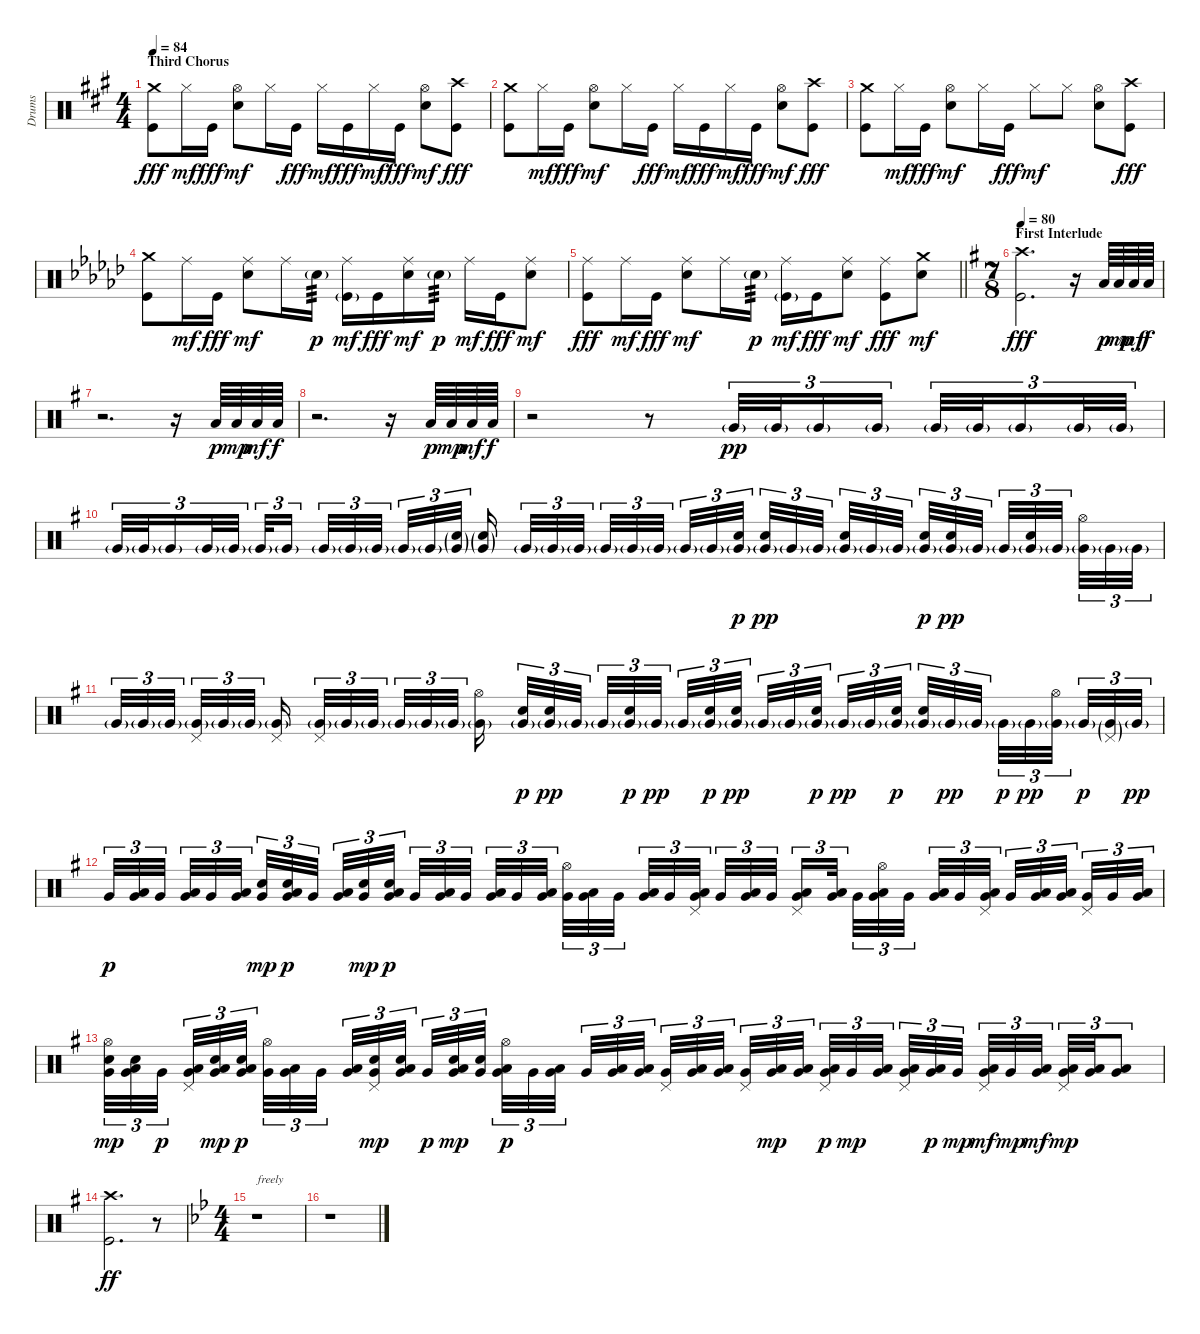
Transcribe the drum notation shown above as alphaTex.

\track ("Drums" "Drums") {instrument percussion}
\staff {score}
\articulation defaults
\ts (4 4)
\section ("" "Third Chorus")
\tempo 84
\clef neutral
\ks a
("Crash medium (hit)" "Kick (hit)").8{dy fff} "Hi-Hat (closed)".16{dy mf} "Kick (hit)".16{dy fff} ("Hi-Hat (open)" "Electric Snare (hit)").8{dy mf} "Hi-Hat (closed)".16 "Kick (hit)".16{dy fff} "Hi-Hat (closed)".16{dy mf} "Kick (hit)".16{dy fff} "Hi-Hat (closed)".16{dy mf} "Kick (hit)".16{dy fff} ("Hi-Hat (open)" "Electric Snare (hit)").8{dy mf} ("Crash high (hit)" "Kick (hit)").8{dy fff} |
("Crash medium (hit)" "Kick (hit)").8 "Hi-Hat (closed)".16{dy mf} "Kick (hit)".16{dy fff} ("Hi-Hat (open)" "Electric Snare (hit)").8{dy mf} "Hi-Hat (closed)".16 "Kick (hit)".16{dy fff} "Hi-Hat (closed)".16{dy mf} "Kick (hit)".16{dy fff} "Hi-Hat (closed)".16{dy mf} "Kick (hit)".16{dy fff} ("Hi-Hat (open)" "Electric Snare (hit)").8{dy mf} ("Crash high (hit)" "Kick (hit)").8{dy fff} |
("Crash medium (hit)" "Kick (hit)").8 "Hi-Hat (closed)".16{dy mf} "Kick (hit)".16{dy fff} ("Hi-Hat (open)" "Electric Snare (hit)").8{dy mf} "Hi-Hat (closed)".16 "Kick (hit)".16{dy fff} "Hi-Hat (closed)".8{dy mf} "Hi-Hat (closed)".8 ("Hi-Hat (open)" "Electric Snare (hit)").8 ("Crash high (hit)" "Kick (hit)").8{dy fff} |
\ks gb
("Crash medium (hit)" "Kick (hit)").8 "Ride (middle)".16{dy mf} "Kick (hit)".16{dy fff} ("Ride (middle)" "Electric Snare (hit)").8{dy mf} "Ride (middle)".16 "Electric Snare (hit)"{g}.16{tp 3 dy p} ("Ride (middle)" "Kick (hit)"{g}).16{dy mf} "Kick (hit)".16{dy fff} ("Ride (middle)" "Electric Snare (hit)").16{dy mf} "Electric Snare (hit)"{g}.16{tp 3 dy p} "Ride (middle)".16{dy mf} "Kick (hit)".16{dy fff} ("Ride (middle)" "Electric Snare (hit)").8{dy mf} |
\barLineRight lightlight
("Ride (middle)" "Kick (hit)").8{dy fff} "Ride (middle)".16{dy mf} "Kick (hit)".16{dy fff} ("Ride (middle)" "Electric Snare (hit)").8{dy mf} "Ride (middle)".16 "Electric Snare (hit)"{g}.16{tp 3 dy p} ("Ride (middle)" "Kick (hit)"{g}).16{dy mf} "Kick (hit)".16{dy fff} ("Ride (middle)" "Electric Snare (hit)").8{dy mf} ("Ride (middle)" "Kick (hit)").8{dy fff} ("Crash medium (hit)" "Electric Snare (hit)").8{dy mf} |
\ts (7 8)
\section ("" "First Interlude")
\tempo 80
\ks g
("Crash high (hit)" "Kick (hit)").2{d dy fff volume 10} r.16 "Low Floor Tom (hit)".64{dy p} "Low Floor Tom (hit)".64{dy mp} "Low Floor Tom (hit)".64{dy mf} "Low Floor Tom (hit)".64{dy f} |
r.2{d} r.16 "Low Floor Tom (hit)".64{dy p} "Low Floor Tom (hit)".64{dy mp} "Low Floor Tom (hit)".64{dy mf} "Low Floor Tom (hit)".64{dy f} |
r.2{d} r.16 "Low Floor Tom (hit)".64{dy p} "Low Floor Tom (hit)".64{dy mp} "Low Floor Tom (hit)".64{dy mf} "Low Floor Tom (hit)".64{dy f} |
r.2 r.8 "Very Low Tom (hit)"{g}.32{tu (3 2) dy pp} "Very Low Tom (hit)"{g}.32{tu (3 2)} "Very Low Tom (hit)"{g}.16{tu (3 2)} "Very Low Tom (hit)"{g}.16{tu (3 2)} "Very Low Tom (hit)"{g}.32{tu (3 2)} "Very Low Tom (hit)"{g}.32{tu (3 2)} "Very Low Tom (hit)"{g}.16{tu (3 2)} "Very Low Tom (hit)"{g}.32{tu (3 2)} "Very Low Tom (hit)"{g}.32{tu (3 2)} |
"Very Low Tom (hit)"{g}.32{tu (3 2)} "Very Low Tom (hit)"{g}.32{tu (3 2)} "Very Low Tom (hit)"{g}.16{tu (3 2)} "Very Low Tom (hit)"{g}.32{tu (3 2)} "Very Low Tom (hit)"{g}.32{tu (3 2)} "Very Low Tom (hit)"{g}.32{tu (3 2)} "Very Low Tom (hit)"{g}.16{tu (3 2) beam splitsecondary} "Very Low Tom (hit)"{g}.32{tu (3 2)} "Very Low Tom (hit)"{g}.32{tu (3 2)} "Very Low Tom (hit)"{g}.32{tu (3 2)} "Very Low Tom (hit)"{g}.32{tu (3 2)} "Very Low Tom (hit)"{g}.32{tu (3 2)} ("Very Low Tom (hit)"{g} "Electric Snare (hit)"{g}).32{tu (3 2) beam splitsecondary} ("Very Low Tom (hit)"{g} "Electric Snare (hit)"{g}).16 "Very Low Tom (hit)"{g}.32{tu (3 2)} "Very Low Tom (hit)"{g}.32{tu (3 2)} "Very Low Tom (hit)"{g}.32{tu (3 2) beam splitsecondary} "Very Low Tom (hit)"{g}.32{tu (3 2)} "Very Low Tom (hit)"{g}.32{tu (3 2)} "Very Low Tom (hit)"{g}.32{tu (3 2)} "Very Low Tom (hit)"{g}.32{tu (3 2)} "Very Low Tom (hit)"{g}.32{tu (3 2)} ("Very Low Tom (hit)"{g} "Electric Snare (hit)").32{tu (3 2) dy p beam splitsecondary} ("Very Low Tom (hit)"{g} "Electric Snare (hit)").32{tu (3 2) dy pp} "Very Low Tom (hit)"{g}.32{tu (3 2)} "Very Low Tom (hit)"{g}.32{tu (3 2)} ("Very Low Tom (hit)"{g} "Electric Snare (hit)").32{tu (3 2)} "Very Low Tom (hit)"{g}.32{tu (3 2)} "Very Low Tom (hit)"{g}.32{tu (3 2) beam splitsecondary} ("Very Low Tom (hit)"{g} "Electric Snare (hit)").32{tu (3 2) dy p} ("Very Low Tom (hit)"{g} "Electric Snare (hit)").32{tu (3 2) dy pp} "Very Low Tom (hit)"{g}.32{tu (3 2)} "Very Low Tom (hit)"{g}.32{tu (3 2)} ("Very Low Tom (hit)"{g} "Electric Snare (hit)").32{tu (3 2)} "Very Low Tom (hit)"{g}.32{tu (3 2) beam splitsecondary} ("Hi-Hat (open)" "Very Low Tom (hit)"{g}).32{tu (3 2)} "Very Low Tom (hit)"{g}.32{tu (3 2)} "Very Low Tom (hit)"{g}.32{tu (3 2)} |
"Very Low Tom (hit)"{g}.32{tu (3 2)} "Very Low Tom (hit)"{g}.32{tu (3 2)} "Very Low Tom (hit)"{g}.32{tu (3 2) beam splitsecondary} ("Pedal Hi-Hat (hit)" "Very Low Tom (hit)"{g}).32{tu (3 2)} "Very Low Tom (hit)"{g}.32{tu (3 2)} "Very Low Tom (hit)"{g}.32{tu (3 2)} ("Pedal Hi-Hat (hit)" "Very Low Tom (hit)"{g}).16{beam splitsecondary} ("Pedal Hi-Hat (hit)" "Very Low Tom (hit)"{g}).32{tu (3 2)} "Very Low Tom (hit)"{g}.32{tu (3 2)} "Very Low Tom (hit)"{g}.32{tu (3 2)} "Very Low Tom (hit)"{g}.32{tu (3 2)} "Very Low Tom (hit)"{g}.32{tu (3 2)} "Very Low Tom (hit)"{g}.32{tu (3 2) beam splitsecondary} ("Hi-Hat (open)" "Very Low Tom (hit)"{g}).16 ("Very Low Tom (hit)"{g} "Electric Snare (hit)").32{tu (3 2) dy p} ("Very Low Tom (hit)"{g} "Electric Snare (hit)").32{tu (3 2) dy pp} "Very Low Tom (hit)"{g}.32{tu (3 2) beam splitsecondary} "Very Low Tom (hit)"{g}.32{tu (3 2)} ("Very Low Tom (hit)"{g} "Electric Snare (hit)").32{tu (3 2) dy p} "Very Low Tom (hit)"{g}.32{tu (3 2) dy pp} "Very Low Tom (hit)"{g}.32{tu (3 2)} ("Very Low Tom (hit)"{g} "Electric Snare (hit)").32{tu (3 2) dy p} ("Very Low Tom (hit)"{g} "Electric Snare (hit)").32{tu (3 2) dy pp beam splitsecondary} "Very Low Tom (hit)"{g}.32{tu (3 2)} "Very Low Tom (hit)"{g}.32{tu (3 2)} ("Very Low Tom (hit)"{g} "Electric Snare (hit)").32{tu (3 2) dy p} "Very Low Tom (hit)"{g}.32{tu (3 2) dy pp} "Very Low Tom (hit)"{g}.32{tu (3 2)} ("Very Low Tom (hit)"{g} "Electric Snare (hit)").32{tu (3 2) dy p beam splitsecondary} ("Very Low Tom (hit)"{g} "Electric Snare (hit)").32{tu (3 2)} "Very Low Tom (hit)"{g}.32{tu (3 2) dy pp} "Very Low Tom (hit)"{g}.32{tu (3 2)} "Very Low Tom (hit)"{g}.32{tu (3 2) dy p} "Very Low Tom (hit)"{g}.32{tu (3 2) dy pp} ("Hi-Hat (open)" "Very Low Tom (hit)"{g}).32{tu (3 2) beam splitsecondary} "Very Low Tom (hit)"{g}.32{tu (3 2) dy p} ("Pedal Hi-Hat (hit)"{g} "Very Low Tom (hit)"{g}).32{tu (3 2)} "Very Low Tom (hit)"{g}.32{tu (3 2) dy pp} |
"Very Low Tom (hit)".32{tu (3 2) dy p} ("Low Floor Tom (hit)" "Very Low Tom (hit)").32{tu (3 2)} "Very Low Tom (hit)".32{tu (3 2) beam splitsecondary} ("Low Floor Tom (hit)" "Very Low Tom (hit)").32{tu (3 2)} "Very Low Tom (hit)".32{tu (3 2)} ("Low Floor Tom (hit)" "Very Low Tom (hit)").32{tu (3 2)} ("Very Low Tom (hit)" "Electric Snare (hit)").32{tu (3 2) dy mp} ("Low Floor Tom (hit)" "Very Low Tom (hit)" "Electric Snare (hit)").32{tu (3 2) dy p} "Very Low Tom (hit)".32{tu (3 2) beam splitsecondary} ("Low Floor Tom (hit)" "Very Low Tom (hit)").32{tu (3 2)} ("Very Low Tom (hit)" "Electric Snare (hit)").32{tu (3 2) dy mp} ("Low Floor Tom (hit)" "Very Low Tom (hit)" "Electric Snare (hit)").32{tu (3 2) dy p} "Very Low Tom (hit)".32{tu (3 2)} ("Low Floor Tom (hit)" "Very Low Tom (hit)").32{tu (3 2)} "Very Low Tom (hit)".32{tu (3 2) beam splitsecondary} ("Low Floor Tom (hit)" "Very Low Tom (hit)").32{tu (3 2)} "Very Low Tom (hit)".32{tu (3 2)} ("Low Floor Tom (hit)" "Very Low Tom (hit)").32{tu (3 2)} ("Hi-Hat (open)" "Very Low Tom (hit)").32{tu (3 2)} ("Low Floor Tom (hit)" "Very Low Tom (hit)").32{tu (3 2)} "Very Low Tom (hit)".32{tu (3 2) beam splitsecondary} ("Low Floor Tom (hit)" "Very Low Tom (hit)").32{tu (3 2)} "Very Low Tom (hit)".32{tu (3 2)} ("Pedal Hi-Hat (hit)" "Low Floor Tom (hit)" "Very Low Tom (hit)").32{tu (3 2)} "Very Low Tom (hit)".32{tu (3 2)} ("Low Floor Tom (hit)" "Very Low Tom (hit)").32{tu (3 2)} "Very Low Tom (hit)".32{tu (3 2) beam splitsecondary} ("Pedal Hi-Hat (hit)" "Low Floor Tom (hit)" "Very Low Tom (hit)").16{tu (3 2)} ("Low Floor Tom (hit)" "Very Low Tom (hit)").32{tu (3 2)} "Very Low Tom (hit)".32{tu (3 2)} ("Hi-Hat (open)" "Low Floor Tom (hit)" "Very Low Tom (hit)").32{tu (3 2)} "Very Low Tom (hit)".32{tu (3 2) beam splitsecondary} ("Low Floor Tom (hit)" "Very Low Tom (hit)").32{tu (3 2)} "Very Low Tom (hit)".32{tu (3 2)} ("Pedal Hi-Hat (hit)" "Low Floor Tom (hit)" "Very Low Tom (hit)").32{tu (3 2)} "Very Low Tom (hit)".32{tu (3 2)} ("Low Floor Tom (hit)" "Very Low Tom (hit)").32{tu (3 2)} ("Low Floor Tom (hit)" "Very Low Tom (hit)").32{tu (3 2) beam splitsecondary} ("Pedal Hi-Hat (hit)" "Very Low Tom (hit)").32{tu (3 2)} "Very Low Tom (hit)".32{tu (3 2)} ("Low Floor Tom (hit)" "Very Low Tom (hit)").32{tu (3 2)} |
("Hi-Hat (open)" "Very Low Tom (hit)" "Electric Snare (hit)").32{tu (3 2) dy mp} ("Low Floor Tom (hit)" "Very Low Tom (hit)" "Electric Snare (hit)").32{tu (3 2)} "Very Low Tom (hit)".32{tu (3 2) dy p beam splitsecondary} ("Pedal Hi-Hat (hit)" "Low Floor Tom (hit)" "Very Low Tom (hit)").32{tu (3 2)} ("Low Floor Tom (hit)" "Very Low Tom (hit)" "Electric Snare (hit)").32{tu (3 2) dy mp} ("Low Floor Tom (hit)" "Very Low Tom (hit)" "Electric Snare (hit)").32{tu (3 2) dy p} ("Hi-Hat (open)" "Very Low Tom (hit)").32{tu (3 2)} ("Low Floor Tom (hit)" "Very Low Tom (hit)").32{tu (3 2)} "Very Low Tom (hit)".32{tu (3 2) beam splitsecondary} ("Low Floor Tom (hit)" "Very Low Tom (hit)").32{tu (3 2)} ("Pedal Hi-Hat (hit)" "Very Low Tom (hit)" "Electric Snare (hit)").32{tu (3 2) dy mp} ("Low Floor Tom (hit)" "Very Low Tom (hit)" "Electric Snare (hit)").32{tu (3 2)} "Very Low Tom (hit)".32{tu (3 2) dy p} ("Low Floor Tom (hit)" "Very Low Tom (hit)" "Electric Snare (hit)").32{tu (3 2) dy mp} ("Very Low Tom (hit)" "Electric Snare (hit)").32{tu (3 2) beam splitsecondary} ("Hi-Hat (open)" "Low Floor Tom (hit)" "Very Low Tom (hit)").32{tu (3 2) dy p} "Very Low Tom (hit)".32{tu (3 2)} ("Low Floor Tom (hit)" "Very Low Tom (hit)").32{tu (3 2)} "Very Low Tom (hit)".32{tu (3 2)} ("Low Floor Tom (hit)" "Very Low Tom (hit)").32{tu (3 2)} ("Low Floor Tom (hit)" "Very Low Tom (hit)").32{tu (3 2) beam splitsecondary} ("Pedal Hi-Hat (hit)" "Very Low Tom (hit)").32{tu (3 2)} ("Low Floor Tom (hit)" "Very Low Tom (hit)").32{tu (3 2)} ("Low Floor Tom (hit)" "Very Low Tom (hit)").32{tu (3 2)} ("Pedal Hi-Hat (hit)" "Very Low Tom (hit)").32{tu (3 2)} ("Low Floor Tom (hit)" "Very Low Tom (hit)").32{tu (3 2) dy mp} ("Low Floor Tom (hit)" "Very Low Tom (hit)").32{tu (3 2) beam splitsecondary} ("Pedal Hi-Hat (hit)" "Low Floor Tom (hit)" "Very Low Tom (hit)").32{tu (3 2) dy p} "Very Low Tom (hit)".32{tu (3 2) dy mp} ("Low Floor Tom (hit)" "Very Low Tom (hit)").32{tu (3 2)} ("Pedal Hi-Hat (hit)" "Low Floor Tom (hit)" "Very Low Tom (hit)").32{tu (3 2)} ("Low Floor Tom (hit)" "Very Low Tom (hit)").32{tu (3 2) dy p} "Very Low Tom (hit)".32{tu (3 2) dy mp beam splitsecondary} ("Pedal Hi-Hat (hit)" "Low Floor Tom (hit)" "Very Low Tom (hit)").32{tu (3 2) dy mf} "Very Low Tom (hit)".32{tu (3 2) dy mp} ("Low Floor Tom (hit)" "Very Low Tom (hit)").32{tu (3 2) dy mf} ("Pedal Hi-Hat (hit)" "Low Floor Tom (hit)" "Very Low Tom (hit)").32{tu (3 2) dy mp} ("Low Floor Tom (hit)" "Very Low Tom (hit)").32{tu (3 2)} ("Low Floor Tom (hit)" "Very Low Tom (hit)").8{tu (3 2)} |
("Crash high (hit)" "Kick (hit)").2{d dy ff} r.8 |
\ts (4 4)
\ks bb
r.1{txt "freely"} |
\ks gminor
r.1
